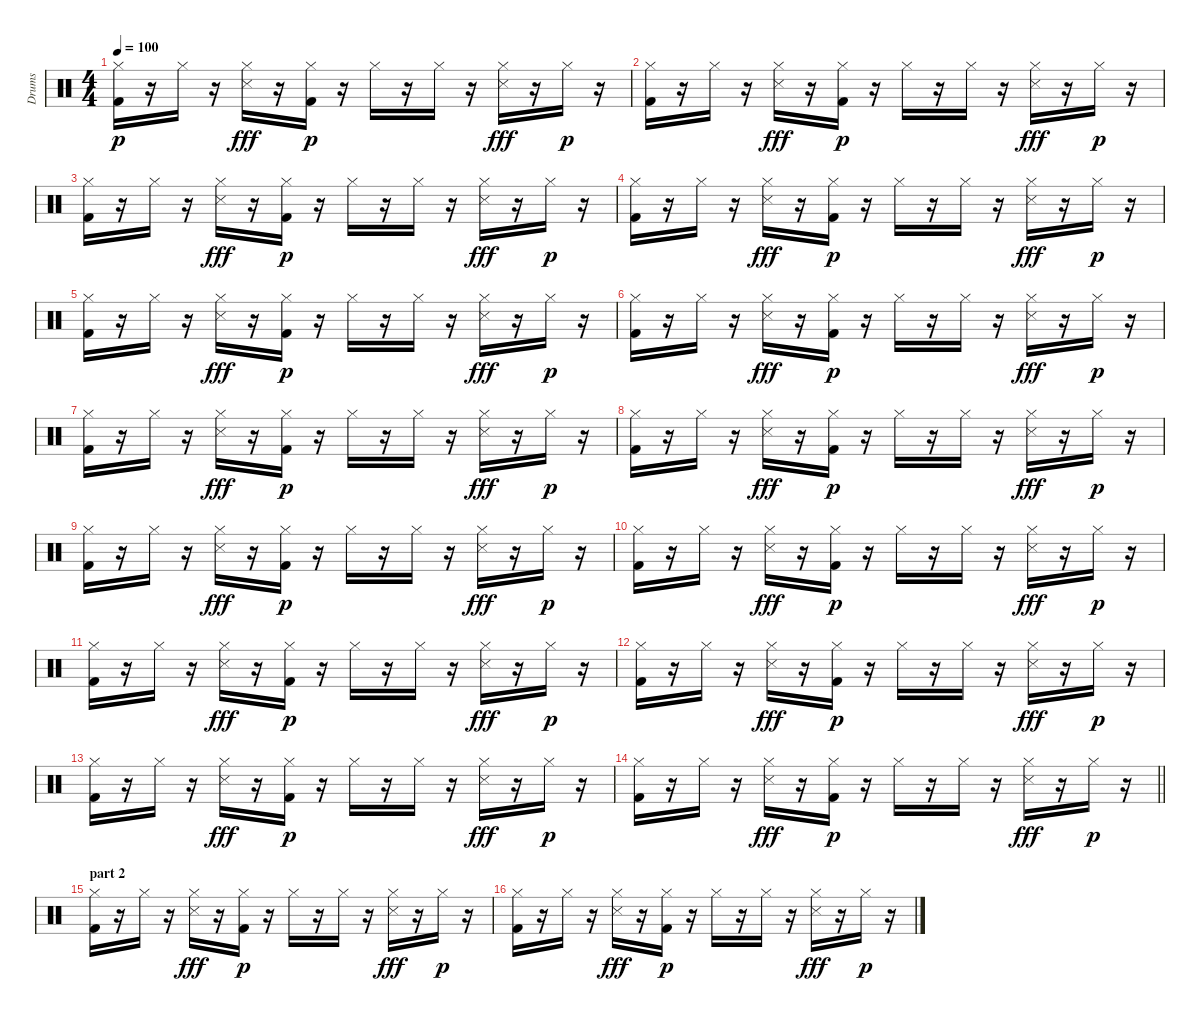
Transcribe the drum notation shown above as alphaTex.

\track ("Drums" "Drums") {instrument percussion}
\staff {score}
\articulation defaults
\ts (4 4)
\tempo 100
\clef neutral
\ks c
("Hi-Hat (closed)" "Kick (hit) 2").16{dy p} r.16 "Hi-Hat (closed)".16 r.16 ("Hi-Hat (closed)" "Snare (side stick) 3").16{dy fff} r.16 ("Hi-Hat (closed)" "Kick (hit) 2").16{dy p} r.16 "Hi-Hat (closed)".16 r.16 "Hi-Hat (closed)".16 r.16 ("Hi-Hat (closed)" "Snare (side stick) 3").16{dy fff} r.16 "Hi-Hat (closed)".16{dy p} r.16 |
("Hi-Hat (closed)" "Kick (hit) 2").16 r.16 "Hi-Hat (closed)".16 r.16 ("Hi-Hat (closed)" "Snare (side stick) 3").16{dy fff} r.16 ("Hi-Hat (closed)" "Kick (hit) 2").16{dy p} r.16 "Hi-Hat (closed)".16 r.16 "Hi-Hat (closed)".16 r.16 ("Hi-Hat (closed)" "Snare (side stick) 3").16{dy fff} r.16 "Hi-Hat (closed)".16{dy p} r.16 |
("Hi-Hat (closed)" "Kick (hit) 2").16 r.16 "Hi-Hat (closed)".16 r.16 ("Hi-Hat (closed)" "Snare (side stick) 3").16{dy fff} r.16 ("Hi-Hat (closed)" "Kick (hit) 2").16{dy p} r.16 "Hi-Hat (closed)".16 r.16 "Hi-Hat (closed)".16 r.16 ("Hi-Hat (closed)" "Snare (side stick) 3").16{dy fff} r.16 "Hi-Hat (closed)".16{dy p} r.16 |
("Hi-Hat (closed)" "Kick (hit) 2").16 r.16 "Hi-Hat (closed)".16 r.16 ("Hi-Hat (closed)" "Snare (side stick) 3").16{dy fff} r.16 ("Hi-Hat (closed)" "Kick (hit) 2").16{dy p} r.16 "Hi-Hat (closed)".16 r.16 "Hi-Hat (closed)".16 r.16 ("Hi-Hat (closed)" "Snare (side stick) 3").16{dy fff} r.16 "Hi-Hat (closed)".16{dy p} r.16 |
("Hi-Hat (closed)" "Kick (hit) 2").16 r.16 "Hi-Hat (closed)".16 r.16 ("Hi-Hat (closed)" "Snare (side stick) 3").16{dy fff} r.16 ("Hi-Hat (closed)" "Kick (hit) 2").16{dy p} r.16 "Hi-Hat (closed)".16 r.16 "Hi-Hat (closed)".16 r.16 ("Hi-Hat (closed)" "Snare (side stick) 3").16{dy fff} r.16 "Hi-Hat (closed)".16{dy p} r.16 |
("Hi-Hat (closed)" "Kick (hit) 2").16 r.16 "Hi-Hat (closed)".16 r.16 ("Hi-Hat (closed)" "Snare (side stick) 3").16{dy fff} r.16 ("Hi-Hat (closed)" "Kick (hit) 2").16{dy p} r.16 "Hi-Hat (closed)".16 r.16 "Hi-Hat (closed)".16 r.16 ("Hi-Hat (closed)" "Snare (side stick) 3").16{dy fff} r.16 "Hi-Hat (closed)".16{dy p} r.16 |
("Hi-Hat (closed)" "Kick (hit) 2").16 r.16 "Hi-Hat (closed)".16 r.16 ("Hi-Hat (closed)" "Snare (side stick) 3").16{dy fff} r.16 ("Hi-Hat (closed)" "Kick (hit) 2").16{dy p} r.16 "Hi-Hat (closed)".16 r.16 "Hi-Hat (closed)".16 r.16 ("Hi-Hat (closed)" "Snare (side stick) 3").16{dy fff} r.16 "Hi-Hat (closed)".16{dy p} r.16 |
("Hi-Hat (closed)" "Kick (hit) 2").16 r.16 "Hi-Hat (closed)".16 r.16 ("Hi-Hat (closed)" "Snare (side stick) 3").16{dy fff} r.16 ("Hi-Hat (closed)" "Kick (hit) 2").16{dy p} r.16 "Hi-Hat (closed)".16 r.16 "Hi-Hat (closed)".16 r.16 ("Hi-Hat (closed)" "Snare (side stick) 3").16{dy fff} r.16 "Hi-Hat (closed)".16{dy p} r.16 |
("Hi-Hat (closed)" "Kick (hit) 2").16 r.16 "Hi-Hat (closed)".16 r.16 ("Hi-Hat (closed)" "Snare (side stick) 3").16{dy fff} r.16 ("Hi-Hat (closed)" "Kick (hit) 2").16{dy p} r.16 "Hi-Hat (closed)".16 r.16 "Hi-Hat (closed)".16 r.16 ("Hi-Hat (closed)" "Snare (side stick) 3").16{dy fff} r.16 "Hi-Hat (closed)".16{dy p} r.16 |
("Hi-Hat (closed)" "Kick (hit) 2").16 r.16 "Hi-Hat (closed)".16 r.16 ("Hi-Hat (closed)" "Snare (side stick) 3").16{dy fff} r.16 ("Hi-Hat (closed)" "Kick (hit) 2").16{dy p} r.16 "Hi-Hat (closed)".16 r.16 "Hi-Hat (closed)".16 r.16 ("Hi-Hat (closed)" "Snare (side stick) 3").16{dy fff} r.16 "Hi-Hat (closed)".16{dy p} r.16 |
("Hi-Hat (closed)" "Kick (hit) 2").16 r.16 "Hi-Hat (closed)".16 r.16 ("Hi-Hat (closed)" "Snare (side stick) 3").16{dy fff} r.16 ("Hi-Hat (closed)" "Kick (hit) 2").16{dy p} r.16 "Hi-Hat (closed)".16 r.16 "Hi-Hat (closed)".16 r.16 ("Hi-Hat (closed)" "Snare (side stick) 3").16{dy fff} r.16 "Hi-Hat (closed)".16{dy p} r.16 |
("Hi-Hat (closed)" "Kick (hit) 2").16 r.16 "Hi-Hat (closed)".16 r.16 ("Hi-Hat (closed)" "Snare (side stick) 3").16{dy fff} r.16 ("Hi-Hat (closed)" "Kick (hit) 2").16{dy p} r.16 "Hi-Hat (closed)".16 r.16 "Hi-Hat (closed)".16 r.16 ("Hi-Hat (closed)" "Snare (side stick) 3").16{dy fff} r.16 "Hi-Hat (closed)".16{dy p} r.16 |
("Hi-Hat (closed)" "Kick (hit) 2").16 r.16 "Hi-Hat (closed)".16 r.16 ("Hi-Hat (closed)" "Snare (side stick) 3").16{dy fff} r.16 ("Hi-Hat (closed)" "Kick (hit) 2").16{dy p} r.16 "Hi-Hat (closed)".16 r.16 "Hi-Hat (closed)".16 r.16 ("Hi-Hat (closed)" "Snare (side stick) 3").16{dy fff} r.16 "Hi-Hat (closed)".16{dy p} r.16 |
\barLineRight lightlight
("Hi-Hat (closed)" "Kick (hit) 2").16 r.16 "Hi-Hat (closed)".16 r.16 ("Hi-Hat (closed)" "Snare (side stick) 3").16{dy fff} r.16 ("Hi-Hat (closed)" "Kick (hit) 2").16{dy p} r.16 "Hi-Hat (closed)".16 r.16 "Hi-Hat (closed)".16 r.16 ("Hi-Hat (closed)" "Snare (side stick) 3").16{dy fff} r.16 "Hi-Hat (closed)".16{dy p} r.16 |
\section ("" "part 2")
("Hi-Hat (closed)" "Kick (hit) 2").16 r.16 "Hi-Hat (closed)".16 r.16 ("Hi-Hat (closed)" "Snare (side stick) 3").16{dy fff} r.16 ("Hi-Hat (closed)" "Kick (hit) 2").16{dy p} r.16 "Hi-Hat (closed)".16 r.16 "Hi-Hat (closed)".16 r.16 ("Hi-Hat (closed)" "Snare (side stick) 3").16{dy fff} r.16 "Hi-Hat (closed)".16{dy p} r.16 |
("Hi-Hat (closed)" "Kick (hit) 2").16 r.16 "Hi-Hat (closed)".16 r.16 ("Hi-Hat (closed)" "Snare (side stick) 3").16{dy fff} r.16 ("Hi-Hat (closed)" "Kick (hit) 2").16{dy p} r.16 "Hi-Hat (closed)".16 r.16 "Hi-Hat (closed)".16 r.16 ("Hi-Hat (closed)" "Snare (side stick) 3").16{dy fff} r.16 "Hi-Hat (closed)".16{dy p} r.16
